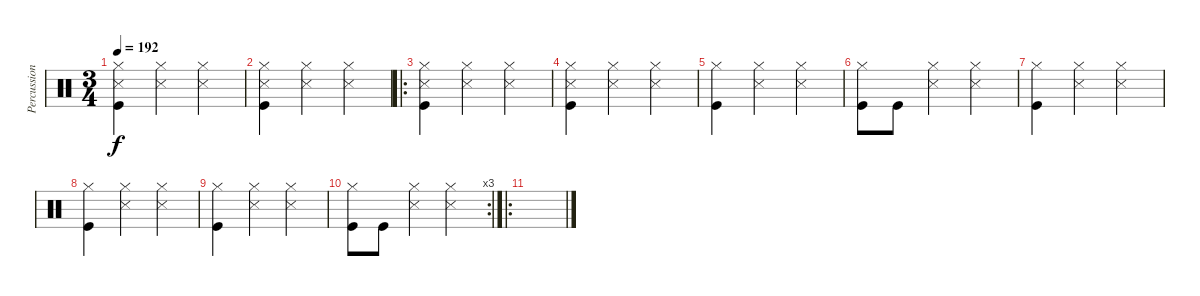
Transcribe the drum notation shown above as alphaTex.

\track ("Percussion" "Percussion") {instrument percussion}
\staff {score}
\articulation defaults
\ts (3 4)
\tempo 192
\clef neutral
\ks c
("Hi-Hat (closed)" "Snare (side stick) 3" "Kick (hit)").4{dy f} ("Hi-Hat (closed)" "Snare (side stick) 3").4 ("Hi-Hat (closed)" "Snare (side stick) 3").4 |
("Hi-Hat (closed)" "Snare (side stick) 3" "Kick (hit)").4 ("Hi-Hat (closed)" "Snare (side stick) 3").4 ("Hi-Hat (closed)" "Snare (side stick) 3").4 |
\ro
("Hi-Hat (closed)" "Snare (side stick) 3" "Kick (hit)").4 ("Hi-Hat (closed)" "Snare (side stick) 3").4 ("Hi-Hat (closed)" "Snare (side stick) 3").4 |
("Hi-Hat (closed)" "Snare (side stick) 3" "Kick (hit)").4 ("Hi-Hat (closed)" "Snare (side stick) 3").4 ("Hi-Hat (closed)" "Snare (side stick) 3").4 |
("Kick (hit)" "Hi-Hat (closed)").4 ("Hi-Hat (closed)" "Snare (side stick) 3").4 ("Hi-Hat (closed)" "Snare (side stick) 3").4 |
("Kick (hit)" "Hi-Hat (closed)").8 "Kick (hit)".8 ("Hi-Hat (closed)" "Snare (side stick) 3").4 ("Hi-Hat (closed)" "Snare (side stick) 3").4 |
("Kick (hit)" "Hi-Hat (closed)").4 ("Hi-Hat (closed)" "Snare (side stick) 3").4 ("Hi-Hat (closed)" "Snare (side stick) 3").4 |
("Kick (hit)" "Hi-Hat (closed)").4 ("Hi-Hat (closed)" "Snare (side stick) 3").4 ("Hi-Hat (closed)" "Snare (side stick) 3").4 |
("Kick (hit)" "Hi-Hat (closed)").4 ("Hi-Hat (closed)" "Snare (side stick) 3").4 ("Hi-Hat (closed)" "Snare (side stick) 3").4 |
\rc 3
("Kick (hit)" "Hi-Hat (closed)").8 "Kick (hit)".8 ("Hi-Hat (closed)" "Snare (side stick) 3").4 ("Hi-Hat (closed)" "Snare (side stick) 3").4 |
\ro
